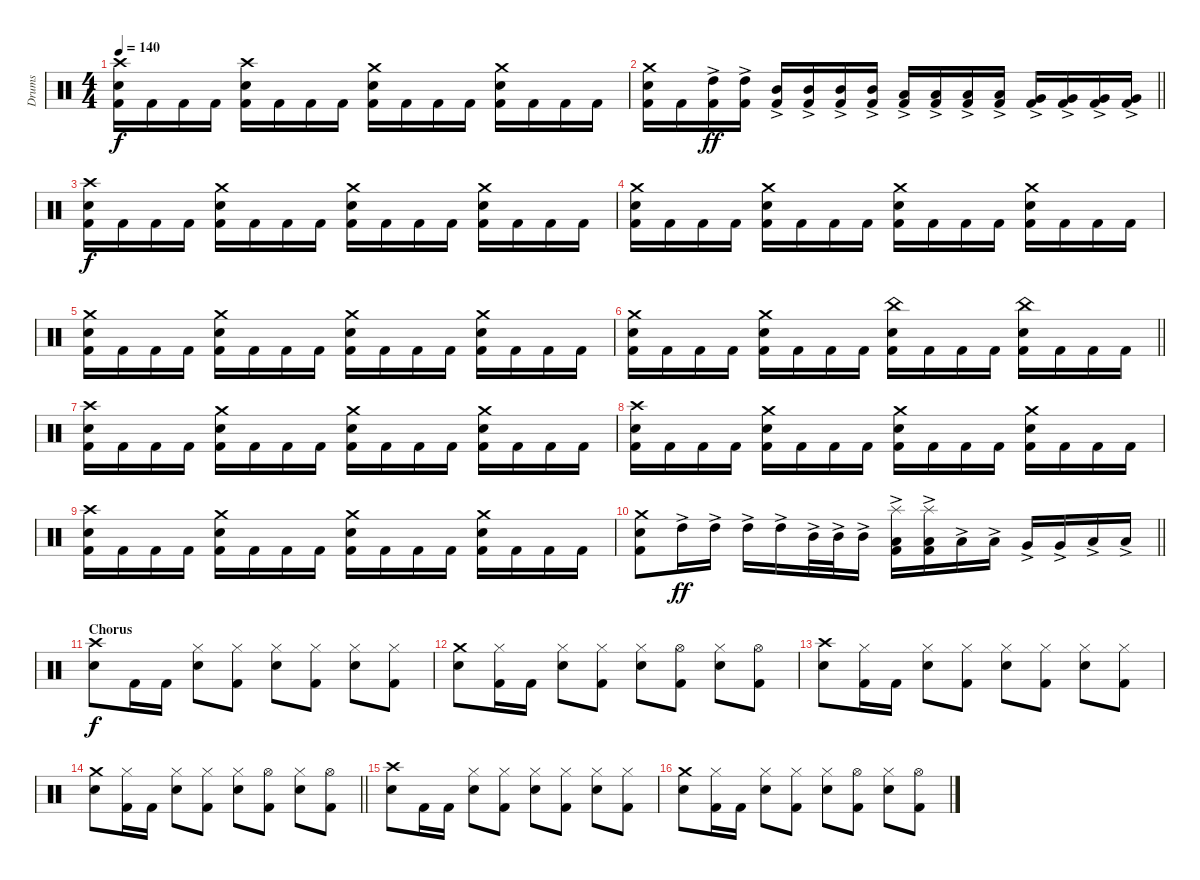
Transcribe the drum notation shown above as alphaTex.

\track ("Drums" "Drums") {instrument percussion}
\staff {score}
\articulation defaults
\ts (4 4)
\tempo 140
\clef neutral
\ks c
("Kick (hit) 2" "Snare (hit) 2" "Crash high (hit)").16{dy f} "Kick (hit) 2".16 "Kick (hit) 2".16 "Kick (hit) 2".16 ("Kick (hit) 2" "Snare (hit) 2" "Crash high (hit)").16 "Kick (hit) 2".16 "Kick (hit) 2".16 "Kick (hit) 2".16 ("Kick (hit) 2" "Snare (hit) 2" "Crash medium (hit)").16 "Kick (hit) 2".16 "Kick (hit) 2".16 "Kick (hit) 2".16 ("Kick (hit) 2" "Snare (hit) 2" "Crash medium (hit)").16 "Kick (hit) 2".16 "Kick (hit) 2".16 "Kick (hit) 2".16 |
\barLineRight lightlight
("Kick (hit) 2" "Snare (hit) 2" "Crash medium (hit)").16 "Kick (hit) 2".16 ("Kick (hit) 2" "High Tom (hit)"{ac}).16{dy ff} ("Kick (hit) 2" "High Tom (hit)"{ac}).16 ("Kick (hit) 2" "Mid Tom (hit)"{ac}).16 ("Kick (hit) 2" "Mid Tom (hit)"{ac}).16 ("Kick (hit) 2" "Mid Tom (hit)"{ac}).16 ("Kick (hit) 2" "Mid Tom (hit)"{ac}).16 ("Kick (hit) 2" "Low Tom (hit)"{ac}).16 ("Kick (hit) 2" "Low Tom (hit)"{ac}).16 ("Kick (hit) 2" "Low Tom (hit)"{ac}).16 ("Kick (hit) 2" "Low Tom (hit)"{ac}).16 ("Kick (hit) 2" "Very Low Tom (hit)"{ac}).16 ("Kick (hit) 2" "Very Low Tom (hit)"{ac}).16 ("Kick (hit) 2" "Very Low Tom (hit)"{ac}).16 ("Kick (hit) 2" "Very Low Tom (hit)"{ac}).16 |
\section ("" "")
("Kick (hit) 2" "Snare (hit) 2" "Crash high (hit)").16{dy f} "Kick (hit) 2".16 "Kick (hit) 2".16 "Kick (hit) 2".16 ("Kick (hit) 2" "Snare (hit) 2" "Crash medium (hit)").16 "Kick (hit) 2".16 "Kick (hit) 2".16 "Kick (hit) 2".16 ("Kick (hit) 2" "Snare (hit) 2" "Crash medium (hit)").16 "Kick (hit) 2".16 "Kick (hit) 2".16 "Kick (hit) 2".16 ("Kick (hit) 2" "Snare (hit) 2" "Crash medium (hit)").16 "Kick (hit) 2".16 "Kick (hit) 2".16 "Kick (hit) 2".16 |
("Kick (hit) 2" "Snare (hit) 2" "Crash medium (hit)").16 "Kick (hit) 2".16 "Kick (hit) 2".16 "Kick (hit) 2".16 ("Kick (hit) 2" "Snare (hit) 2" "Crash medium (hit)").16 "Kick (hit) 2".16 "Kick (hit) 2".16 "Kick (hit) 2".16 ("Kick (hit) 2" "Snare (hit) 2" "Crash medium (hit)").16 "Kick (hit) 2".16 "Kick (hit) 2".16 "Kick (hit) 2".16 ("Kick (hit) 2" "Snare (hit) 2" "Crash medium (hit)").16 "Kick (hit) 2".16 "Kick (hit) 2".16 "Kick (hit) 2".16 |
("Kick (hit) 2" "Snare (hit) 2" "Crash medium (hit)").16 "Kick (hit) 2".16 "Kick (hit) 2".16 "Kick (hit) 2".16 ("Kick (hit) 2" "Snare (hit) 2" "Crash medium (hit)").16 "Kick (hit) 2".16 "Kick (hit) 2".16 "Kick (hit) 2".16 ("Kick (hit) 2" "Snare (hit) 2" "Crash medium (hit)").16 "Kick (hit) 2".16 "Kick (hit) 2".16 "Kick (hit) 2".16 ("Kick (hit) 2" "Snare (hit) 2" "Crash medium (hit)").16 "Kick (hit) 2".16 "Kick (hit) 2".16 "Kick (hit) 2".16 |
\barLineRight lightlight
("Kick (hit) 2" "Snare (hit) 2" "Crash medium (hit)").16 "Kick (hit) 2".16 "Kick (hit) 2".16 "Kick (hit) 2".16 ("Kick (hit) 2" "Snare (hit) 2" "Crash medium (hit)").16 "Kick (hit) 2".16 "Kick (hit) 2".16 "Kick (hit) 2".16 ("Kick (hit) 2" "Snare (hit) 2" "China (hit)").16 "Kick (hit) 2".16 "Kick (hit) 2".16 "Kick (hit) 2".16 ("Kick (hit) 2" "Snare (hit) 2" "China (hit)").16 "Kick (hit) 2".16 "Kick (hit) 2".16 "Kick (hit) 2".16 |
\section ("" "")
("Kick (hit) 2" "Snare (hit) 2" "Crash high (hit)").16 "Kick (hit) 2".16 "Kick (hit) 2".16 "Kick (hit) 2".16 ("Kick (hit) 2" "Snare (hit) 2" "Crash medium (hit)").16 "Kick (hit) 2".16 "Kick (hit) 2".16 "Kick (hit) 2".16 ("Kick (hit) 2" "Snare (hit) 2" "Crash medium (hit)").16 "Kick (hit) 2".16 "Kick (hit) 2".16 "Kick (hit) 2".16 ("Kick (hit) 2" "Snare (hit) 2" "Crash medium (hit)").16 "Kick (hit) 2".16 "Kick (hit) 2".16 "Kick (hit) 2".16 |
("Kick (hit) 2" "Snare (hit) 2" "Crash high (hit)").16 "Kick (hit) 2".16 "Kick (hit) 2".16 "Kick (hit) 2".16 ("Kick (hit) 2" "Snare (hit) 2" "Crash medium (hit)").16 "Kick (hit) 2".16 "Kick (hit) 2".16 "Kick (hit) 2".16 ("Kick (hit) 2" "Snare (hit) 2" "Crash medium (hit)").16 "Kick (hit) 2".16 "Kick (hit) 2".16 "Kick (hit) 2".16 ("Kick (hit) 2" "Snare (hit) 2" "Crash medium (hit)").16 "Kick (hit) 2".16 "Kick (hit) 2".16 "Kick (hit) 2".16 |
("Kick (hit) 2" "Snare (hit) 2" "Crash high (hit)").16 "Kick (hit) 2".16 "Kick (hit) 2".16 "Kick (hit) 2".16 ("Kick (hit) 2" "Snare (hit) 2" "Crash medium (hit)").16 "Kick (hit) 2".16 "Kick (hit) 2".16 "Kick (hit) 2".16 ("Kick (hit) 2" "Snare (hit) 2" "Crash medium (hit)").16 "Kick (hit) 2".16 "Kick (hit) 2".16 "Kick (hit) 2".16 ("Kick (hit) 2" "Snare (hit) 2" "Crash medium (hit)").16 "Kick (hit) 2".16 "Kick (hit) 2".16 "Kick (hit) 2".16 |
\barLineRight lightlight
("Kick (hit) 2" "Snare (hit) 2" "Crash medium (hit)").8 "High Tom (hit)"{ac}.16{dy ff} "High Tom (hit)"{ac}.16 "High Tom (hit)"{ac}.16 "High Tom (hit)"{ac}.16 "Mid Tom (hit)"{ac}.32 "Mid Tom (hit)"{ac}.32 "Mid Tom (hit)"{ac}.16 ("Kick (hit) 2"{ac} "Low Tom (hit)"{ac} "Splash (hit)").16 ("Kick (hit) 2"{ac} "Low Tom (hit)"{ac} "Splash (hit)").16 "Low Tom (hit)"{ac}.16 "Low Tom (hit)"{ac}.16 "Very Low Tom (hit)"{ac}.16 "Very Low Tom (hit)"{ac}.16 "Low Floor Tom (hit)"{ac}.16 "Low Floor Tom (hit)"{ac}.16 |
\section ("" "Chorus")
("Snare (hit) 2" "Crash high (hit)").8{dy f} "Kick (hit) 2".16 "Kick (hit) 2".16 ("Snare (hit) 2" "Hi-Hat (closed)").8 ("Kick (hit) 2" "Hi-Hat (closed)").8 ("Snare (hit) 2" "Hi-Hat (closed)").8 ("Kick (hit) 2" "Hi-Hat (closed)").8 ("Snare (hit) 2" "Hi-Hat (closed)").8 ("Kick (hit) 2" "Hi-Hat (closed)").8 |
("Snare (hit) 2" "Crash medium (hit)").8 ("Kick (hit) 2" "Hi-Hat (closed)").16 "Kick (hit) 2".16 ("Snare (hit) 2" "Hi-Hat (closed)").8 ("Kick (hit) 2" "Hi-Hat (closed)").8 ("Snare (hit) 2" "Hi-Hat (closed)").8 ("Kick (hit) 2" "Hi-Hat (open)").8 ("Snare (hit) 2" "Hi-Hat (closed)").8 ("Kick (hit) 2" "Hi-Hat (open)").8 |
("Snare (hit) 2" "Crash high (hit)").8 ("Kick (hit) 2" "Hi-Hat (closed)").16 "Kick (hit) 2".16 ("Snare (hit) 2" "Hi-Hat (closed)").8 ("Kick (hit) 2" "Hi-Hat (closed)").8 ("Snare (hit) 2" "Hi-Hat (closed)").8 ("Kick (hit) 2" "Hi-Hat (closed)").8 ("Snare (hit) 2" "Hi-Hat (closed)").8 ("Kick (hit) 2" "Hi-Hat (closed)").8 |
\barLineRight lightlight
("Snare (hit) 2" "Crash medium (hit)").8 ("Kick (hit) 2" "Hi-Hat (closed)").16 "Kick (hit) 2".16 ("Snare (hit) 2" "Hi-Hat (closed)").8 ("Kick (hit) 2" "Hi-Hat (closed)").8 ("Snare (hit) 2" "Hi-Hat (closed)").8 ("Kick (hit) 2" "Hi-Hat (open)").8 ("Snare (hit) 2" "Hi-Hat (closed)").8 ("Kick (hit) 2" "Hi-Hat (open)").8 |
\section ("" "")
("Snare (hit) 2" "Crash high (hit)").8 "Kick (hit) 2".16 "Kick (hit) 2".16 ("Snare (hit) 2" "Hi-Hat (closed)").8 ("Kick (hit) 2" "Hi-Hat (closed)").8 ("Snare (hit) 2" "Hi-Hat (closed)").8 ("Kick (hit) 2" "Hi-Hat (closed)").8 ("Snare (hit) 2" "Hi-Hat (closed)").8 ("Kick (hit) 2" "Hi-Hat (closed)").8 |
("Snare (hit) 2" "Crash medium (hit)").8 ("Kick (hit) 2" "Hi-Hat (closed)").16 "Kick (hit) 2".16 ("Snare (hit) 2" "Hi-Hat (closed)").8 ("Kick (hit) 2" "Hi-Hat (closed)").8 ("Snare (hit) 2" "Hi-Hat (closed)").8 ("Kick (hit) 2" "Hi-Hat (open)").8 ("Snare (hit) 2" "Hi-Hat (closed)").8 ("Kick (hit) 2" "Hi-Hat (open)").8
